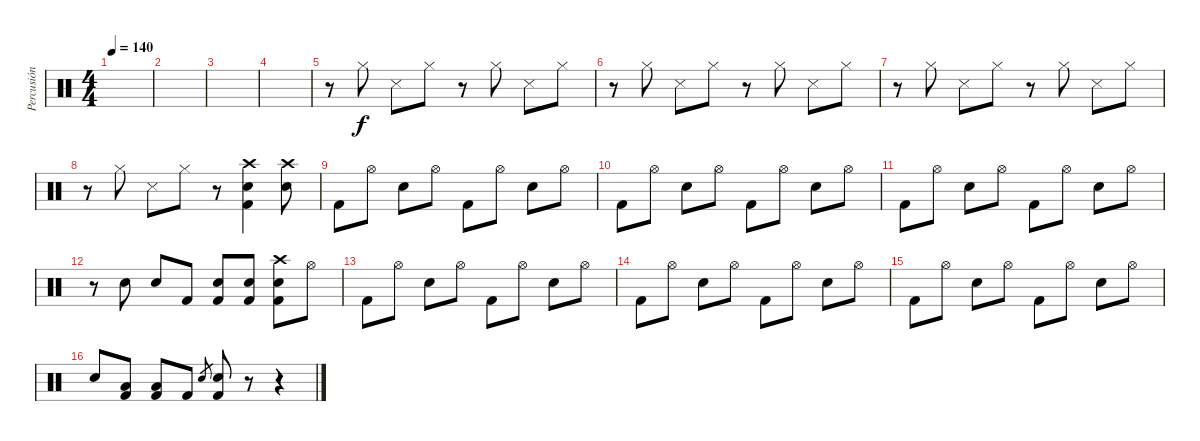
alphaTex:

\track ("Percusión" "Percusión") {instrument percussion}
\staff {score}
\articulation defaults
\ts (4 4)
\tempo 140
\clef neutral
\ks c
|
|
|
|
r.8 "Hi-Hat (closed)".8 "Snare (side stick) 3".8 "Hi-Hat (closed)".8 r.8 "Hi-Hat (closed)".8 "Snare (side stick) 3".8 "Hi-Hat (closed)".8 |
r.8 "Hi-Hat (closed)".8 "Snare (side stick) 3".8 "Hi-Hat (closed)".8 r.8 "Hi-Hat (closed)".8 "Snare (side stick) 3".8 "Hi-Hat (closed)".8 |
r.8 "Hi-Hat (closed)".8 "Snare (side stick) 3".8 "Hi-Hat (closed)".8 r.8 "Hi-Hat (closed)".8 "Snare (side stick) 3".8 "Hi-Hat (closed)".8 |
r.8 "Hi-Hat (closed)".8 "Snare (side stick) 3".8 "Hi-Hat (closed)".8 r.8 ("Crash high (hit)" "Electric Snare (hit)" "Kick (hit) 2").4 ("Crash high (hit)" "Electric Snare (hit)").8 |
"Kick (hit) 2".8 "Hi-Hat (open)".8 "Electric Snare (hit)".8 "Hi-Hat (open)".8 "Kick (hit) 2".8 "Hi-Hat (open)".8 "Electric Snare (hit)".8 "Hi-Hat (open)".8 |
"Kick (hit) 2".8 "Hi-Hat (open)".8 "Electric Snare (hit)".8 "Hi-Hat (open)".8 "Kick (hit) 2".8 "Hi-Hat (open)".8 "Electric Snare (hit)".8 "Hi-Hat (open)".8 |
"Kick (hit) 2".8 "Hi-Hat (open)".8 "Electric Snare (hit)".8 "Hi-Hat (open)".8 "Kick (hit) 2".8 "Hi-Hat (open)".8 "Electric Snare (hit)".8 "Hi-Hat (open)".8 |
r.8 "Electric Snare (hit)".8 "Electric Snare (hit)".8 "Kick (hit) 2".8 ("Electric Snare (hit)" "Kick (hit) 2").8 ("Electric Snare (hit)" "Kick (hit) 2").8 ("Crash high (hit)" "Electric Snare (hit)" "Kick (hit) 2").8 "Hi-Hat (open)".8 |
"Kick (hit) 2".8 "Hi-Hat (open)".8 "Electric Snare (hit)".8 "Hi-Hat (open)".8 "Kick (hit) 2".8 "Hi-Hat (open)".8 "Electric Snare (hit)".8 "Hi-Hat (open)".8 |
"Kick (hit) 2".8 "Hi-Hat (open)".8 "Electric Snare (hit)".8 "Hi-Hat (open)".8 "Kick (hit) 2".8 "Hi-Hat (open)".8 "Electric Snare (hit)".8 "Hi-Hat (open)".8 |
"Kick (hit) 2".8 "Hi-Hat (open)".8 "Electric Snare (hit)".8 "Hi-Hat (open)".8 "Kick (hit) 2".8 "Hi-Hat (open)".8 "Electric Snare (hit)".8 "Hi-Hat (open)".8 |
"Electric Snare (hit)".8 ("Low Tom (hit)" "Kick (hit) 2").8 ("Low Tom (hit)" "Kick (hit) 2").8 "Kick (hit) 2".8 "Electric Snare (hit)".8{gr} ("Electric Snare (hit)" "Kick (hit) 2").8 r.8 r.4
